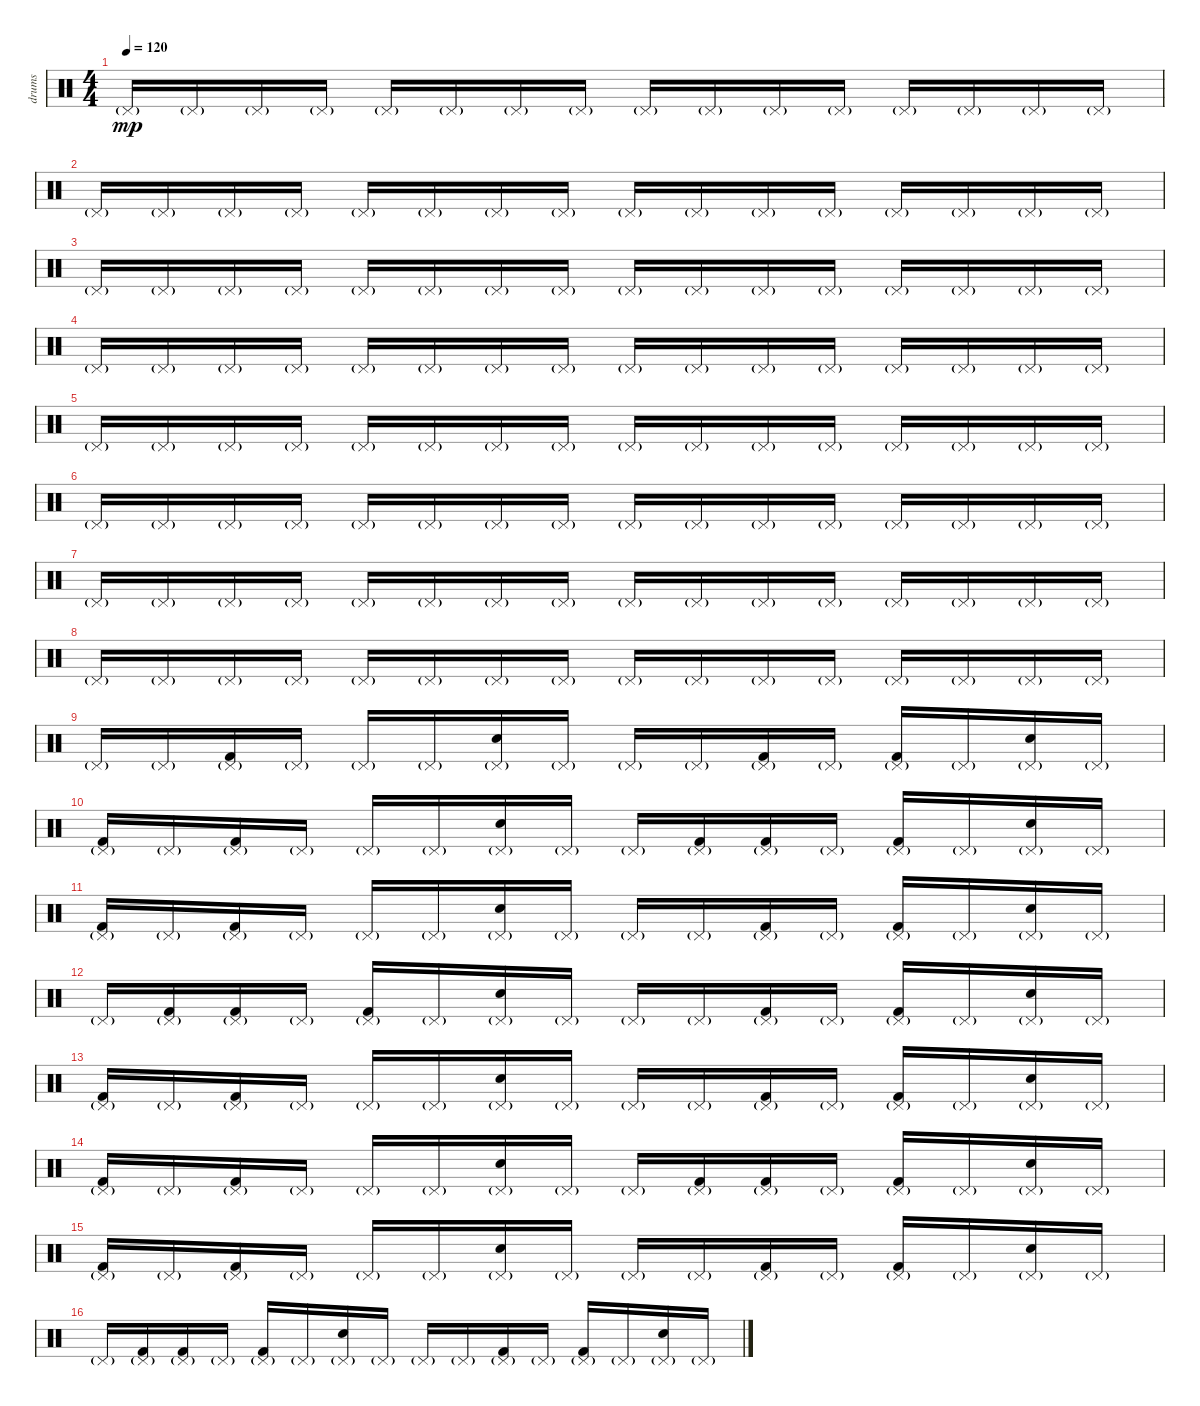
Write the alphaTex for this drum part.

\track ("drums" "drums") {instrument percussion}
\staff {score}
\articulation defaults
\ts (4 4)
\tempo 120
\clef neutral
\ks c "Pedal Hi-Hat (hit)"{g}.16{dy mp} "Pedal Hi-Hat (hit)"{g}.16 "Pedal Hi-Hat (hit)"{g}.16 "Pedal Hi-Hat (hit)"{g}.16 "Pedal Hi-Hat (hit)"{g}.16 "Pedal Hi-Hat (hit)"{g}.16 "Pedal Hi-Hat (hit)"{g}.16 "Pedal Hi-Hat (hit)"{g}.16 "Pedal Hi-Hat (hit)"{g}.16 "Pedal Hi-Hat (hit)"{g}.16 "Pedal Hi-Hat (hit)"{g}.16 "Pedal Hi-Hat (hit)"{g}.16 "Pedal Hi-Hat (hit)"{g}.16 "Pedal Hi-Hat (hit)"{g}.16 "Pedal Hi-Hat (hit)"{g}.16 "Pedal Hi-Hat (hit)"{g}.16
|
"Pedal Hi-Hat (hit)"{g}.16 "Pedal Hi-Hat (hit)"{g}.16 "Pedal Hi-Hat (hit)"{g}.16 "Pedal Hi-Hat (hit)"{g}.16 "Pedal Hi-Hat (hit)"{g}.16 "Pedal Hi-Hat (hit)"{g}.16 "Pedal Hi-Hat (hit)"{g}.16 "Pedal Hi-Hat (hit)"{g}.16 "Pedal Hi-Hat (hit)"{g}.16 "Pedal Hi-Hat (hit)"{g}.16 "Pedal Hi-Hat (hit)"{g}.16 "Pedal Hi-Hat (hit)"{g}.16 "Pedal Hi-Hat (hit)"{g}.16 "Pedal Hi-Hat (hit)"{g}.16 "Pedal Hi-Hat (hit)"{g}.16 "Pedal Hi-Hat (hit)"{g}.16 |
"Pedal Hi-Hat (hit)"{g}.16 "Pedal Hi-Hat (hit)"{g}.16 "Pedal Hi-Hat (hit)"{g}.16 "Pedal Hi-Hat (hit)"{g}.16 "Pedal Hi-Hat (hit)"{g}.16 "Pedal Hi-Hat (hit)"{g}.16 "Pedal Hi-Hat (hit)"{g}.16 "Pedal Hi-Hat (hit)"{g}.16 "Pedal Hi-Hat (hit)"{g}.16 "Pedal Hi-Hat (hit)"{g}.16 "Pedal Hi-Hat (hit)"{g}.16 "Pedal Hi-Hat (hit)"{g}.16 "Pedal Hi-Hat (hit)"{g}.16 "Pedal Hi-Hat (hit)"{g}.16 "Pedal Hi-Hat (hit)"{g}.16 "Pedal Hi-Hat (hit)"{g}.16 |
"Pedal Hi-Hat (hit)"{g}.16 "Pedal Hi-Hat (hit)"{g}.16 "Pedal Hi-Hat (hit)"{g}.16 "Pedal Hi-Hat (hit)"{g}.16 "Pedal Hi-Hat (hit)"{g}.16 "Pedal Hi-Hat (hit)"{g}.16 "Pedal Hi-Hat (hit)"{g}.16 "Pedal Hi-Hat (hit)"{g}.16 "Pedal Hi-Hat (hit)"{g}.16 "Pedal Hi-Hat (hit)"{g}.16 "Pedal Hi-Hat (hit)"{g}.16 "Pedal Hi-Hat (hit)"{g}.16 "Pedal Hi-Hat (hit)"{g}.16 "Pedal Hi-Hat (hit)"{g}.16 "Pedal Hi-Hat (hit)"{g}.16 "Pedal Hi-Hat (hit)"{g}.16 |
"Pedal Hi-Hat (hit)"{g}.16 "Pedal Hi-Hat (hit)"{g}.16 "Pedal Hi-Hat (hit)"{g}.16 "Pedal Hi-Hat (hit)"{g}.16 "Pedal Hi-Hat (hit)"{g}.16 "Pedal Hi-Hat (hit)"{g}.16 "Pedal Hi-Hat (hit)"{g}.16 "Pedal Hi-Hat (hit)"{g}.16 "Pedal Hi-Hat (hit)"{g}.16 "Pedal Hi-Hat (hit)"{g}.16 "Pedal Hi-Hat (hit)"{g}.16 "Pedal Hi-Hat (hit)"{g}.16 "Pedal Hi-Hat (hit)"{g}.16 "Pedal Hi-Hat (hit)"{g}.16 "Pedal Hi-Hat (hit)"{g}.16 "Pedal Hi-Hat (hit)"{g}.16 |
"Pedal Hi-Hat (hit)"{g}.16 "Pedal Hi-Hat (hit)"{g}.16 "Pedal Hi-Hat (hit)"{g}.16 "Pedal Hi-Hat (hit)"{g}.16 "Pedal Hi-Hat (hit)"{g}.16 "Pedal Hi-Hat (hit)"{g}.16 "Pedal Hi-Hat (hit)"{g}.16 "Pedal Hi-Hat (hit)"{g}.16 "Pedal Hi-Hat (hit)"{g}.16 "Pedal Hi-Hat (hit)"{g}.16 "Pedal Hi-Hat (hit)"{g}.16 "Pedal Hi-Hat (hit)"{g}.16 "Pedal Hi-Hat (hit)"{g}.16 "Pedal Hi-Hat (hit)"{g}.16 "Pedal Hi-Hat (hit)"{g}.16 "Pedal Hi-Hat (hit)"{g}.16 |
"Pedal Hi-Hat (hit)"{g}.16 "Pedal Hi-Hat (hit)"{g}.16 "Pedal Hi-Hat (hit)"{g}.16 "Pedal Hi-Hat (hit)"{g}.16 "Pedal Hi-Hat (hit)"{g}.16 "Pedal Hi-Hat (hit)"{g}.16 "Pedal Hi-Hat (hit)"{g}.16 "Pedal Hi-Hat (hit)"{g}.16 "Pedal Hi-Hat (hit)"{g}.16 "Pedal Hi-Hat (hit)"{g}.16 "Pedal Hi-Hat (hit)"{g}.16 "Pedal Hi-Hat (hit)"{g}.16 "Pedal Hi-Hat (hit)"{g}.16 "Pedal Hi-Hat (hit)"{g}.16 "Pedal Hi-Hat (hit)"{g}.16 "Pedal Hi-Hat (hit)"{g}.16 |
"Pedal Hi-Hat (hit)"{g}.16 "Pedal Hi-Hat (hit)"{g}.16 "Pedal Hi-Hat (hit)"{g}.16 "Pedal Hi-Hat (hit)"{g}.16 "Pedal Hi-Hat (hit)"{g}.16 "Pedal Hi-Hat (hit)"{g}.16 "Pedal Hi-Hat (hit)"{g}.16 "Pedal Hi-Hat (hit)"{g}.16 "Pedal Hi-Hat (hit)"{g}.16 "Pedal Hi-Hat (hit)"{g}.16 "Pedal Hi-Hat (hit)"{g}.16 "Pedal Hi-Hat (hit)"{g}.16 "Pedal Hi-Hat (hit)"{g}.16 "Pedal Hi-Hat (hit)"{g}.16 "Pedal Hi-Hat (hit)"{g}.16 "Pedal Hi-Hat (hit)"{g}.16 |
"Pedal Hi-Hat (hit)"{g}.16 "Pedal Hi-Hat (hit)"{g}.16 ("Kick (hit) 2" "Pedal Hi-Hat (hit)"{g}).16 "Pedal Hi-Hat (hit)"{g}.16 "Pedal Hi-Hat (hit)"{g}.16 "Pedal Hi-Hat (hit)"{g}.16 ("Hand Clap (hit)" "Pedal Hi-Hat (hit)"{g}).16 "Pedal Hi-Hat (hit)"{g}.16 "Pedal Hi-Hat (hit)"{g}.16 "Pedal Hi-Hat (hit)"{g}.16 ("Kick (hit) 2" "Pedal Hi-Hat (hit)"{g}).16 "Pedal Hi-Hat (hit)"{g}.16 ("Kick (hit) 2" "Pedal Hi-Hat (hit)"{g}).16 "Pedal Hi-Hat (hit)"{g}.16 ("Hand Clap (hit)" "Pedal Hi-Hat (hit)"{g}).16 "Pedal Hi-Hat (hit)"{g}.16 |
("Kick (hit) 2" "Pedal Hi-Hat (hit)"{g}).16 "Pedal Hi-Hat (hit)"{g}.16 ("Kick (hit) 2" "Pedal Hi-Hat (hit)"{g}).16 "Pedal Hi-Hat (hit)"{g}.16 "Pedal Hi-Hat (hit)"{g}.16 "Pedal Hi-Hat (hit)"{g}.16 ("Hand Clap (hit)" "Pedal Hi-Hat (hit)"{g}).16 "Pedal Hi-Hat (hit)"{g}.16 "Pedal Hi-Hat (hit)"{g}.16 ("Kick (hit) 2" "Pedal Hi-Hat (hit)"{g}).16 ("Kick (hit) 2" "Pedal Hi-Hat (hit)"{g}).16 "Pedal Hi-Hat (hit)"{g}.16 ("Kick (hit) 2" "Pedal Hi-Hat (hit)"{g}).16 "Pedal Hi-Hat (hit)"{g}.16 ("Hand Clap (hit)" "Pedal Hi-Hat (hit)"{g}).16 "Pedal Hi-Hat (hit)"{g}.16 |
("Kick (hit) 2" "Pedal Hi-Hat (hit)"{g}).16 "Pedal Hi-Hat (hit)"{g}.16 ("Kick (hit) 2" "Pedal Hi-Hat (hit)"{g}).16 "Pedal Hi-Hat (hit)"{g}.16 "Pedal Hi-Hat (hit)"{g}.16 "Pedal Hi-Hat (hit)"{g}.16 ("Hand Clap (hit)" "Pedal Hi-Hat (hit)"{g}).16 "Pedal Hi-Hat (hit)"{g}.16 "Pedal Hi-Hat (hit)"{g}.16 "Pedal Hi-Hat (hit)"{g}.16 ("Kick (hit) 2" "Pedal Hi-Hat (hit)"{g}).16 "Pedal Hi-Hat (hit)"{g}.16 ("Kick (hit) 2" "Pedal Hi-Hat (hit)"{g}).16 "Pedal Hi-Hat (hit)"{g}.16 ("Hand Clap (hit)" "Pedal Hi-Hat (hit)"{g}).16 "Pedal Hi-Hat (hit)"{g}.16 |
"Pedal Hi-Hat (hit)"{g}.16 ("Kick (hit) 2" "Pedal Hi-Hat (hit)"{g}).16 ("Kick (hit) 2" "Pedal Hi-Hat (hit)"{g}).16 "Pedal Hi-Hat (hit)"{g}.16 ("Kick (hit) 2" "Pedal Hi-Hat (hit)"{g}).16 "Pedal Hi-Hat (hit)"{g}.16 ("Hand Clap (hit)" "Pedal Hi-Hat (hit)"{g}).16 "Pedal Hi-Hat (hit)"{g}.16 "Pedal Hi-Hat (hit)"{g}.16 "Pedal Hi-Hat (hit)"{g}.16 ("Kick (hit) 2" "Pedal Hi-Hat (hit)"{g}).16 "Pedal Hi-Hat (hit)"{g}.16 ("Kick (hit) 2" "Pedal Hi-Hat (hit)"{g}).16 "Pedal Hi-Hat (hit)"{g}.16 ("Hand Clap (hit)" "Pedal Hi-Hat (hit)"{g}).16 "Pedal Hi-Hat (hit)"{g}.16 |
("Kick (hit) 2" "Pedal Hi-Hat (hit)"{g}).16 "Pedal Hi-Hat (hit)"{g}.16 ("Kick (hit) 2" "Pedal Hi-Hat (hit)"{g}).16 "Pedal Hi-Hat (hit)"{g}.16 "Pedal Hi-Hat (hit)"{g}.16 "Pedal Hi-Hat (hit)"{g}.16 ("Hand Clap (hit)" "Pedal Hi-Hat (hit)"{g}).16 "Pedal Hi-Hat (hit)"{g}.16 "Pedal Hi-Hat (hit)"{g}.16 "Pedal Hi-Hat (hit)"{g}.16 ("Kick (hit) 2" "Pedal Hi-Hat (hit)"{g}).16 "Pedal Hi-Hat (hit)"{g}.16 ("Kick (hit) 2" "Pedal Hi-Hat (hit)"{g}).16 "Pedal Hi-Hat (hit)"{g}.16 ("Hand Clap (hit)" "Pedal Hi-Hat (hit)"{g}).16 "Pedal Hi-Hat (hit)"{g}.16 |
("Kick (hit) 2" "Pedal Hi-Hat (hit)"{g}).16 "Pedal Hi-Hat (hit)"{g}.16 ("Kick (hit) 2" "Pedal Hi-Hat (hit)"{g}).16 "Pedal Hi-Hat (hit)"{g}.16 "Pedal Hi-Hat (hit)"{g}.16 "Pedal Hi-Hat (hit)"{g}.16 ("Hand Clap (hit)" "Pedal Hi-Hat (hit)"{g}).16 "Pedal Hi-Hat (hit)"{g}.16 "Pedal Hi-Hat (hit)"{g}.16 ("Kick (hit) 2" "Pedal Hi-Hat (hit)"{g}).16 ("Kick (hit) 2" "Pedal Hi-Hat (hit)"{g}).16 "Pedal Hi-Hat (hit)"{g}.16 ("Kick (hit) 2" "Pedal Hi-Hat (hit)"{g}).16 "Pedal Hi-Hat (hit)"{g}.16 ("Hand Clap (hit)" "Pedal Hi-Hat (hit)"{g}).16 "Pedal Hi-Hat (hit)"{g}.16 |
("Kick (hit) 2" "Pedal Hi-Hat (hit)"{g}).16 "Pedal Hi-Hat (hit)"{g}.16 ("Kick (hit) 2" "Pedal Hi-Hat (hit)"{g}).16 "Pedal Hi-Hat (hit)"{g}.16 "Pedal Hi-Hat (hit)"{g}.16 "Pedal Hi-Hat (hit)"{g}.16 ("Hand Clap (hit)" "Pedal Hi-Hat (hit)"{g}).16 "Pedal Hi-Hat (hit)"{g}.16 "Pedal Hi-Hat (hit)"{g}.16 "Pedal Hi-Hat (hit)"{g}.16 ("Kick (hit) 2" "Pedal Hi-Hat (hit)"{g}).16 "Pedal Hi-Hat (hit)"{g}.16 ("Kick (hit) 2" "Pedal Hi-Hat (hit)"{g}).16 "Pedal Hi-Hat (hit)"{g}.16 ("Hand Clap (hit)" "Pedal Hi-Hat (hit)"{g}).16 "Pedal Hi-Hat (hit)"{g}.16 |
"Pedal Hi-Hat (hit)"{g}.16 ("Kick (hit) 2" "Pedal Hi-Hat (hit)"{g}).16 ("Kick (hit) 2" "Pedal Hi-Hat (hit)"{g}).16 "Pedal Hi-Hat (hit)"{g}.16 ("Kick (hit) 2" "Pedal Hi-Hat (hit)"{g}).16 "Pedal Hi-Hat (hit)"{g}.16 ("Hand Clap (hit)" "Pedal Hi-Hat (hit)"{g}).16 "Pedal Hi-Hat (hit)"{g}.16 "Pedal Hi-Hat (hit)"{g}.16 "Pedal Hi-Hat (hit)"{g}.16 ("Kick (hit) 2" "Pedal Hi-Hat (hit)"{g}).16 "Pedal Hi-Hat (hit)"{g}.16 ("Kick (hit) 2" "Pedal Hi-Hat (hit)"{g}).16 "Pedal Hi-Hat (hit)"{g}.16 ("Hand Clap (hit)" "Pedal Hi-Hat (hit)"{g}).16 "Pedal Hi-Hat (hit)"{g}.16
